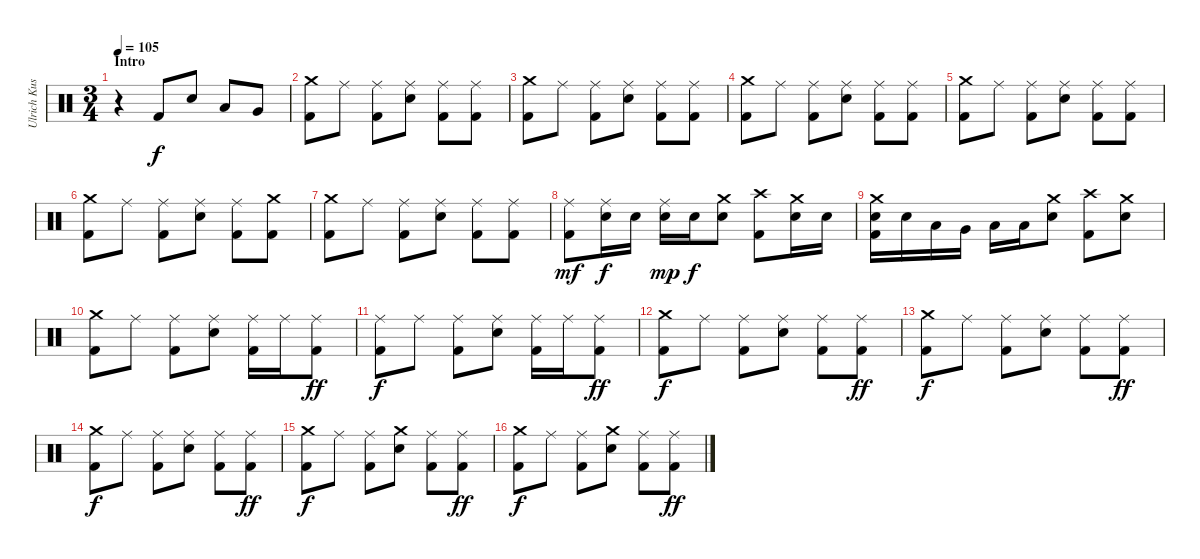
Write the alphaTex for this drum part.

\track ("Ulrich Kusch" "Ulrich Kus") {instrument percussion}
\staff {score}
\articulation defaults
\ts (3 4)
\section ("" "Intro")
\tempo 105
\clef neutral
\ks c
r.4{dy f} "Kick (hit) 2".8 "Electric Snare (hit)".8 "Low Tom (hit)".8 "Very Low Tom (hit)".8 |
("Crash medium (hit)" "Kick (hit) 2").8 "Ride (middle)".8 ("Ride (middle)" "Kick (hit) 2").8 ("Ride (middle)" "Electric Snare (hit)").8 ("Ride (middle)" "Kick (hit) 2").8 ("Ride (middle)" "Kick (hit) 2").8 |
("Crash medium (hit)" "Kick (hit) 2").8 "Ride (middle)".8 ("Ride (middle)" "Kick (hit) 2").8 ("Ride (middle)" "Electric Snare (hit)").8 ("Ride (middle)" "Kick (hit) 2").8 ("Ride (middle)" "Kick (hit) 2").8 |
("Crash medium (hit)" "Kick (hit) 2").8 "Ride (middle)".8 ("Ride (middle)" "Kick (hit) 2").8 ("Ride (middle)" "Electric Snare (hit)").8 ("Ride (middle)" "Kick (hit) 2").8 ("Ride (middle)" "Kick (hit) 2").8 |
("Crash medium (hit)" "Kick (hit) 2").8 "Ride (middle)".8 ("Ride (middle)" "Kick (hit) 2").8 ("Ride (middle)" "Electric Snare (hit)").8 ("Ride (middle)" "Kick (hit) 2").8 ("Ride (middle)" "Kick (hit) 2").8 |
("Crash medium (hit)" "Kick (hit) 2").8 "Ride (middle)".8 ("Ride (middle)" "Kick (hit) 2").8 ("Ride (middle)" "Electric Snare (hit)").8 ("Ride (middle)" "Kick (hit) 2").8 ("Crash medium (hit)" "Kick (hit) 2").8 |
("Crash medium (hit)" "Kick (hit) 2").8 "Ride (middle)".8 ("Ride (middle)" "Kick (hit) 2").8 ("Ride (middle)" "Electric Snare (hit)").8 ("Ride (middle)" "Kick (hit) 2").8 ("Ride (middle)" "Kick (hit) 2").8 |
("Ride (middle)" "Kick (hit) 2").8{dy mf} ("Ride (middle)" "Electric Snare (hit)").16{dy f} "Electric Snare (hit)".16 ("Ride (middle)" "Electric Snare (hit)").16{dy mp} "Electric Snare (hit)".16{dy f} ("Crash medium (hit)" "Electric Snare (hit)").8 ("Crash high (hit)" "Kick (hit) 2").8 ("Crash medium (hit)" "Electric Snare (hit)").16 "Electric Snare (hit)".16 |
("Crash medium (hit)" "Electric Snare (hit)" "Kick (hit) 2").16 "Electric Snare (hit)".16 "Low Tom (hit)".16 "Very Low Tom (hit)".16 "Low Floor Tom (hit)".16 "Low Floor Tom (hit)".16 ("Crash medium (hit)" "Electric Snare (hit)").8 ("Crash high (hit)" "Kick (hit) 2").8 ("Crash medium (hit)" "Electric Snare (hit)").8 |
("Crash medium (hit)" "Kick (hit) 2").8 "Ride (middle)".8 ("Ride (middle)" "Kick (hit) 2").8 ("Ride (middle)" "Electric Snare (hit)").8 ("Ride (middle)" "Kick (hit) 2").16 "Ride (middle)".16 ("Ride (middle)" "Kick (hit) 2").8{dy ff} |
("Ride (middle)" "Kick (hit) 2").8{dy f} "Ride (middle)".8 ("Ride (middle)" "Kick (hit) 2").8 ("Ride (middle)" "Electric Snare (hit)").8 ("Ride (middle)" "Kick (hit) 2").16 "Ride (middle)".16 ("Ride (middle)" "Kick (hit) 2").8{dy ff} |
("Crash medium (hit)" "Kick (hit) 2").8{dy f} "Ride (middle)".8 ("Ride (middle)" "Kick (hit) 2").8 ("Ride (middle)" "Electric Snare (hit)").8 ("Ride (middle)" "Kick (hit) 2").8 ("Ride (middle)" "Kick (hit) 2").8{dy ff} |
("Crash medium (hit)" "Kick (hit) 2").8{dy f} "Ride (middle)".8 ("Ride (middle)" "Kick (hit) 2").8 ("Ride (middle)" "Electric Snare (hit)").8 ("Ride (middle)" "Kick (hit) 2").8 ("Ride (middle)" "Kick (hit) 2").8{dy ff} |
("Crash medium (hit)" "Kick (hit) 2").8{dy f} "Ride (middle)".8 ("Ride (middle)" "Kick (hit) 2").8 ("Ride (middle)" "Electric Snare (hit)").8 ("Ride (middle)" "Kick (hit) 2").8 ("Ride (middle)" "Kick (hit) 2").8{dy ff} |
("Crash medium (hit)" "Kick (hit) 2").8{dy f} "Ride (middle)".8 ("Ride (middle)" "Kick (hit) 2").8 ("Crash medium (hit)" "Electric Snare (hit)").8 ("Ride (middle)" "Kick (hit) 2").8 ("Ride (middle)" "Kick (hit) 2").8{dy ff} |
("Crash medium (hit)" "Kick (hit) 2").8{dy f} "Ride (middle)".8 ("Ride (middle)" "Kick (hit) 2").8 ("Crash medium (hit)" "Electric Snare (hit)").8 ("Ride (middle)" "Kick (hit) 2").8 ("Ride (middle)" "Kick (hit) 2").8{dy ff}
